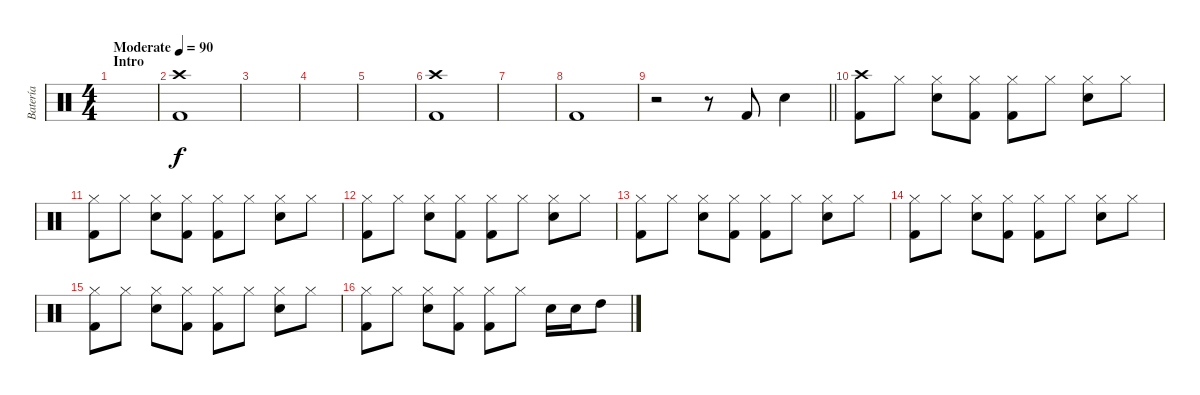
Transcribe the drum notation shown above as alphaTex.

\track ("Batería" "Batería") {instrument percussion}
\staff {score}
\articulation defaults
\ts (4 4)
\section ("" "Intro")
\tempo (90 "Moderate")
\clef neutral
\ks c
|
("Kick (hit) 2" "Crash high (hit)").1 |
|
|
|
("Kick (hit) 2" "Crash high (hit)").1 |
|
"Kick (hit) 2".1 |
\barLineRight lightlight
r.2 r.8 "Kick (hit) 2".8 "Electric Snare (hit)".4 |
("Kick (hit) 2" "Crash high (hit)").8 "Hi-Hat (closed)".8 ("Electric Snare (hit)" "Hi-Hat (closed)").8 ("Kick (hit) 2" "Hi-Hat (closed)").8 ("Kick (hit) 2" "Hi-Hat (closed)").8 "Hi-Hat (closed)".8 ("Electric Snare (hit)" "Hi-Hat (closed)").8 "Hi-Hat (closed)".8 |
("Kick (hit) 2" "Hi-Hat (closed)").8 "Hi-Hat (closed)".8 ("Electric Snare (hit)" "Hi-Hat (closed)").8 ("Kick (hit) 2" "Hi-Hat (closed)").8 ("Kick (hit) 2" "Hi-Hat (closed)").8 "Hi-Hat (closed)".8 ("Electric Snare (hit)" "Hi-Hat (closed)").8 "Hi-Hat (closed)".8 |
("Kick (hit) 2" "Hi-Hat (closed)").8 "Hi-Hat (closed)".8 ("Electric Snare (hit)" "Hi-Hat (closed)").8 ("Kick (hit) 2" "Hi-Hat (closed)").8 ("Kick (hit) 2" "Hi-Hat (closed)").8 "Hi-Hat (closed)".8 ("Electric Snare (hit)" "Hi-Hat (closed)").8 "Hi-Hat (closed)".8 |
("Kick (hit) 2" "Hi-Hat (closed)").8 "Hi-Hat (closed)".8 ("Electric Snare (hit)" "Hi-Hat (closed)").8 ("Kick (hit) 2" "Hi-Hat (closed)").8 ("Kick (hit) 2" "Hi-Hat (closed)").8 "Hi-Hat (closed)".8 ("Electric Snare (hit)" "Hi-Hat (closed)").8 "Hi-Hat (closed)".8 |
("Kick (hit) 2" "Hi-Hat (closed)").8 "Hi-Hat (closed)".8 ("Electric Snare (hit)" "Hi-Hat (closed)").8 ("Kick (hit) 2" "Hi-Hat (closed)").8 ("Kick (hit) 2" "Hi-Hat (closed)").8 "Hi-Hat (closed)".8 ("Electric Snare (hit)" "Hi-Hat (closed)").8 "Hi-Hat (closed)".8 |
("Kick (hit) 2" "Hi-Hat (closed)").8 "Hi-Hat (closed)".8 ("Electric Snare (hit)" "Hi-Hat (closed)").8 ("Kick (hit) 2" "Hi-Hat (closed)").8 ("Kick (hit) 2" "Hi-Hat (closed)").8 "Hi-Hat (closed)".8 ("Electric Snare (hit)" "Hi-Hat (closed)").8 "Hi-Hat (closed)".8 |
("Kick (hit) 2" "Hi-Hat (closed)").8 "Hi-Hat (closed)".8 ("Electric Snare (hit)" "Hi-Hat (closed)").8 ("Kick (hit) 2" "Hi-Hat (closed)").8 ("Kick (hit) 2" "Hi-Hat (closed)").8 "Hi-Hat (closed)".8 "Electric Snare (hit)".16 "Electric Snare (hit)".16 "High Tom (hit)".8
